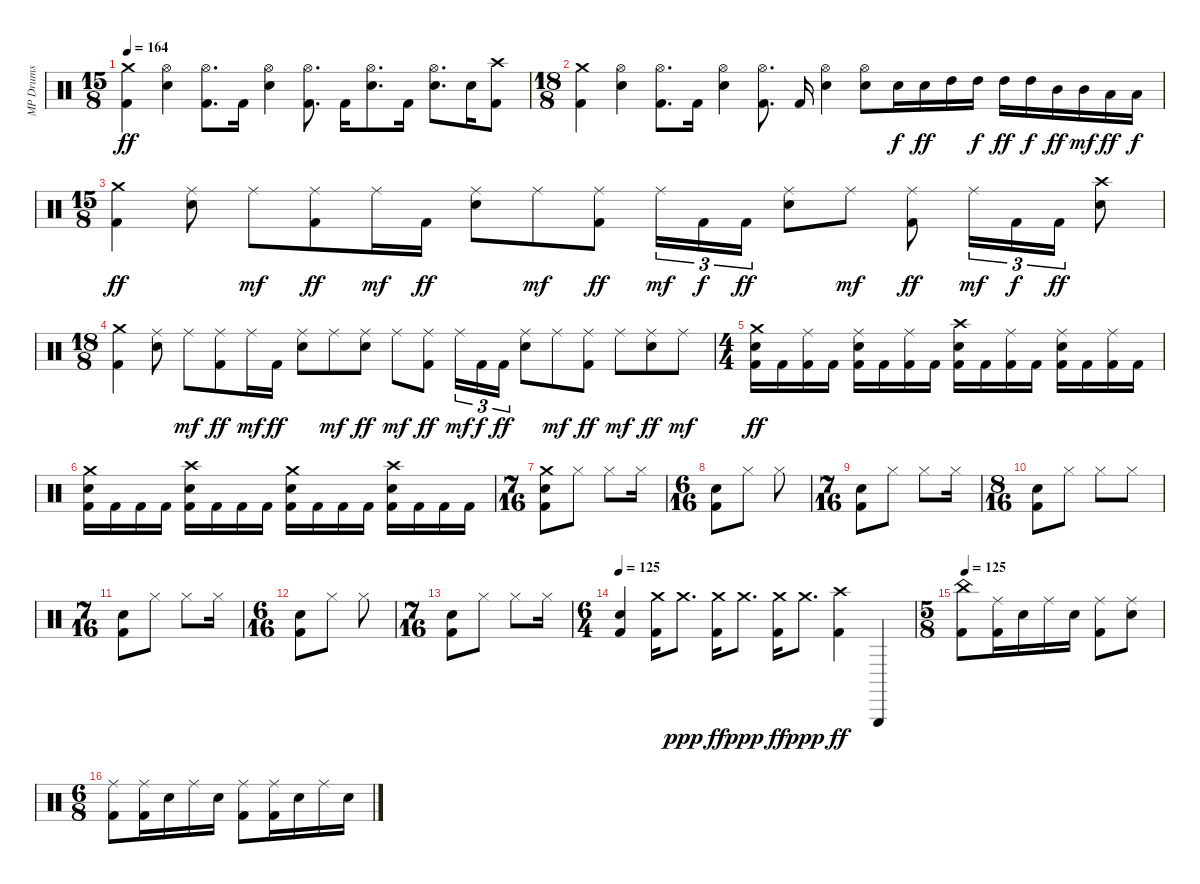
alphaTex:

\track ("MP Drums" "MP Drums") {instrument percussion}
\staff {score}
\articulation defaults
\ts (15 8)
\tempo 164
\clef neutral
\ks c
("Crash medium (hit)" "Kick (hit) 2").4{dy ff} ("Hi-Hat (open)" "Snare (hit) 2").4 ("Hi-Hat (open)" "Kick (hit) 2").8{d} "Kick (hit) 2".16 ("Hi-Hat (open)" "Snare (hit) 2").4 ("Hi-Hat (open)" "Kick (hit) 2").8{d} "Kick (hit) 2".16 ("Hi-Hat (open)" "Snare (hit) 2").8{d} "Kick (hit) 2".16 ("Hi-Hat (open)" "Snare (hit) 2").8{d} "Snare (hit) 2".16 ("Crash high (hit)" "Kick (hit) 2").8 |
\ts (18 8)
("Crash medium (hit)" "Kick (hit) 2").4 ("Hi-Hat (open)" "Snare (hit) 2").4 ("Hi-Hat (open)" "Kick (hit) 2").8{d} "Kick (hit) 2".16 ("Hi-Hat (open)" "Snare (hit) 2").4 ("Hi-Hat (open)" "Kick (hit) 2").8{d} "Kick (hit) 2".16 ("Hi-Hat (open)" "Snare (hit) 2").4 ("Hi-Hat (open)" "Snare (hit) 2").8 "Snare (hit) 2".16{dy f} "Snare (hit) 2".16{dy ff} "High Tom (hit)".16 "High Tom (hit)".16{dy f} "High Tom (hit)".16{dy ff} "High Tom (hit)".16{dy f} "Mid Tom (hit)".16{dy ff} "Mid Tom (hit)".16{dy mf} "Low Tom (hit)".16{dy ff} "Low Tom (hit)".16{dy f} |
\ts (15 8)
("Crash medium (hit)" "Kick (hit) 2").4{dy ff} ("Ride (middle)" "Snare (hit) 2").8 "Ride (middle)".8{dy mf} ("Ride (middle)" "Kick (hit) 2").8{dy ff} "Ride (middle)".16{dy mf} "Kick (hit) 2".16{dy ff} ("Ride (middle)" "Snare (hit) 2").8 "Ride (middle)".8{dy mf} ("Ride (middle)" "Kick (hit) 2").8{dy ff} "Ride (middle)".16{tu (3 2) dy mf} "Kick (hit) 2".16{tu (3 2) dy f} "Kick (hit) 2".16{tu (3 2) dy ff} ("Ride (middle)" "Snare (hit) 2").8 "Ride (middle)".8{dy mf} ("Ride (middle)" "Kick (hit) 2").8{dy ff} "Ride (middle)".16{tu (3 2) dy mf} "Kick (hit) 2".16{tu (3 2) dy f} "Kick (hit) 2".16{tu (3 2) dy ff} ("Crash high (hit)" "Snare (hit) 2").8 |
\ts (18 8)
("Crash medium (hit)" "Kick (hit) 2").4 ("Ride (middle)" "Snare (hit) 2").8 "Ride (middle)".8{dy mf} ("Ride (middle)" "Kick (hit) 2").8{dy ff} "Ride (middle)".16{dy mf} "Kick (hit) 2".16{dy ff} ("Ride (middle)" "Snare (hit) 2").8 "Ride (middle)".8{dy mf} ("Ride (middle)" "Snare (hit) 2").8{dy ff} "Ride (middle)".8{dy mf} ("Ride (middle)" "Kick (hit) 2").8{dy ff} "Ride (middle)".16{tu (3 2) dy mf} "Kick (hit) 2".16{tu (3 2) dy f} "Kick (hit) 2".16{tu (3 2) dy ff} ("Ride (middle)" "Snare (hit) 2").8 "Ride (middle)".8{dy mf} ("Ride (middle)" "Kick (hit) 2").8{dy ff} "Ride (middle)".8{dy mf} ("Ride (middle)" "Snare (hit) 2").8{dy ff} "Ride (middle)".8{dy mf} |
\ts (4 4)
("Crash medium (hit)" "Snare (hit) 2" "Kick (hit) 2").16{dy ff} "Kick (hit) 2".16 ("Ride (middle)" "Kick (hit) 2").16 "Kick (hit) 2".16 ("Ride (middle)" "Snare (hit) 2" "Kick (hit) 2").16 "Kick (hit) 2".16 ("Ride (middle)" "Kick (hit) 2").16 "Kick (hit) 2".16 ("Crash high (hit)" "Snare (hit) 2" "Kick (hit) 2").16 "Kick (hit) 2".16 ("Ride (middle)" "Kick (hit) 2").16 "Kick (hit) 2".16 ("Ride (middle)" "Snare (hit) 2" "Kick (hit) 2").16 "Kick (hit) 2".16 ("Ride (middle)" "Kick (hit) 2").16 "Kick (hit) 2".16 |
("Crash medium (hit)" "Snare (hit) 2" "Kick (hit) 2").16 "Kick (hit) 2".16 "Kick (hit) 2".16 "Kick (hit) 2".16 ("Crash high (hit)" "Snare (hit) 2" "Kick (hit) 2").16 "Kick (hit) 2".16 "Kick (hit) 2".16 "Kick (hit) 2".16 ("Crash medium (hit)" "Snare (hit) 2" "Kick (hit) 2").16 "Kick (hit) 2".16 "Kick (hit) 2".16 "Kick (hit) 2".16 ("Crash high (hit)" "Snare (hit) 2" "Kick (hit) 2").16 "Kick (hit) 2".16 "Kick (hit) 2".16 "Kick (hit) 2".16 |
\ts (7 16)
("Crash medium (hit)" "Snare (hit) 2" "Kick (hit) 2").8 "Hi-Hat (closed)".8 "Hi-Hat (closed)".8 "Hi-Hat (closed)".16 |
\ts (6 16)
("Snare (hit) 2" "Kick (hit) 2").8 "Hi-Hat (closed)".8 "Hi-Hat (closed)".8 |
\ts (7 16)
("Snare (hit) 2" "Kick (hit) 2").8 "Hi-Hat (closed)".8 "Hi-Hat (closed)".8 "Hi-Hat (closed)".16 |
\ts (8 16)
("Snare (hit) 2" "Kick (hit) 2").8 "Hi-Hat (closed)".8 "Hi-Hat (closed)".8 "Hi-Hat (closed)".8 |
\ts (7 16)
("Snare (hit) 2" "Kick (hit) 2").8 "Hi-Hat (closed)".8 "Hi-Hat (closed)".8 "Hi-Hat (closed)".16 |
\ts (6 16)
("Snare (hit) 2" "Kick (hit) 2").8 "Hi-Hat (closed)".8 "Hi-Hat (closed)".8 |
\ts (7 16)
("Snare (hit) 2" "Kick (hit) 2").8 "Hi-Hat (closed)".8 "Hi-Hat (closed)".8 "Hi-Hat (closed)".16 |
\ts (6 4)
\tempo 125
("Snare (hit) 2" "Kick (hit) 2").4 ("Crash medium (hit)" "Kick (hit) 2").16 "Crash medium (hit)".8{d dy ppp} ("Crash medium (hit)" "Kick (hit) 2").16{dy ff} "Crash medium (hit)".8{d dy ppp} ("Crash medium (hit)" "Kick (hit) 2").16{dy ff} "Crash medium (hit)".8{d dy ppp} ("Crash high (hit)" "Kick (hit) 2").4{dy ff} "Triangle (hit)".4 |
\ts (5 8)
\tempo 125
("China (hit)" "Kick (hit) 2").8 ("Ride (middle)" "Kick (hit) 2").16 "Snare (hit) 2".16 "Ride (middle)".16 "Snare (hit) 2".16 ("Ride (middle)" "Kick (hit) 2").8 ("Ride (middle)" "Snare (hit) 2").8 |
\ts (6 8)
("Ride (middle)" "Kick (hit) 2").8 ("Ride (middle)" "Kick (hit) 2").16 "Snare (hit) 2".16 "Ride (middle)".16 "Snare (hit) 2".16 ("Ride (middle)" "Kick (hit) 2").8 ("Ride (middle)" "Kick (hit) 2").16 "Snare (hit) 2".16 "Ride (middle)".16 "Snare (hit) 2".16
